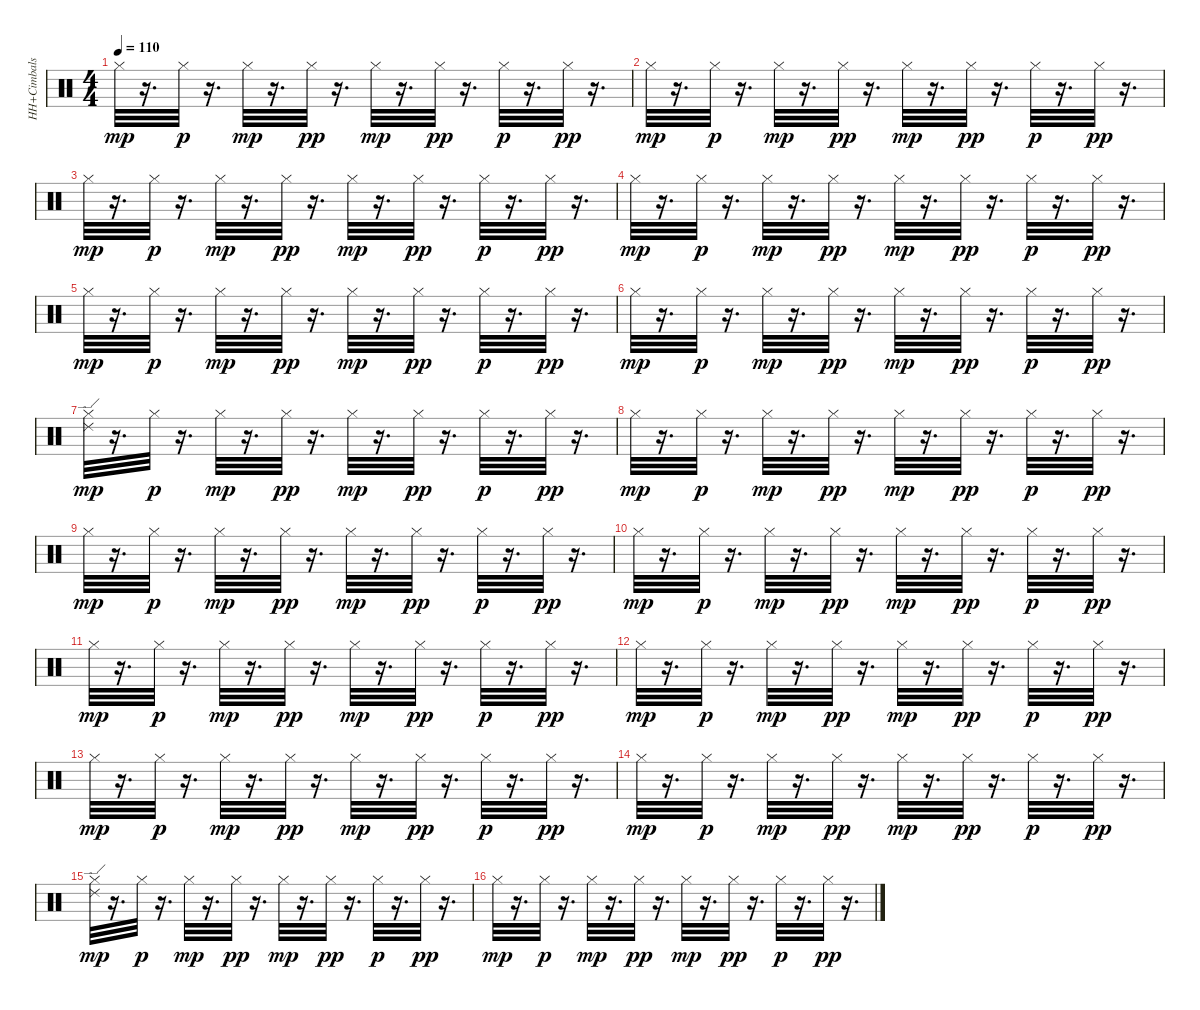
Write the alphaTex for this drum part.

\track ("HH+Cimbals" "HH+Cimbals") {instrument percussion}
\staff {score}
\articulation defaults
\ts (4 4)
\tempo 110
\clef neutral
\ks c "Hi-Hat (closed)".32{dy mp}
r.16{d} "Hi-Hat (closed)".32{dy p} r.16{d} "Hi-Hat (closed)".32{dy mp} r.16{d} "Hi-Hat (closed)".32{dy pp} r.16{d} "Hi-Hat (closed)".32{dy mp} r.16{d} "Hi-Hat (closed)".32{dy pp} r.16{d} "Hi-Hat (closed)".32{dy p} r.16{d} "Hi-Hat (closed)".32{dy pp} r.16{d} |
"Hi-Hat (closed)".32{dy mp} r.16{d} "Hi-Hat (closed)".32{dy p} r.16{d} "Hi-Hat (closed)".32{dy mp} r.16{d} "Hi-Hat (closed)".32{dy pp} r.16{d} "Hi-Hat (closed)".32{dy mp} r.16{d} "Hi-Hat (closed)".32{dy pp} r.16{d} "Hi-Hat (closed)".32{dy p} r.16{d} "Hi-Hat (closed)".32{dy pp} r.16{d} |
"Hi-Hat (closed)".32{dy mp} r.16{d} "Hi-Hat (closed)".32{dy p} r.16{d} "Hi-Hat (closed)".32{dy mp} r.16{d} "Hi-Hat (closed)".32{dy pp} r.16{d} "Hi-Hat (closed)".32{dy mp} r.16{d} "Hi-Hat (closed)".32{dy pp} r.16{d} "Hi-Hat (closed)".32{dy p} r.16{d} "Hi-Hat (closed)".32{dy pp} r.16{d} |
"Hi-Hat (closed)".32{dy mp} r.16{d} "Hi-Hat (closed)".32{dy p} r.16{d} "Hi-Hat (closed)".32{dy mp} r.16{d} "Hi-Hat (closed)".32{dy pp} r.16{d} "Hi-Hat (closed)".32{dy mp} r.16{d} "Hi-Hat (closed)".32{dy pp} r.16{d} "Hi-Hat (closed)".32{dy p} r.16{d} "Hi-Hat (closed)".32{dy pp} r.16{d} |
"Hi-Hat (closed)".32{dy mp} r.16{d} "Hi-Hat (closed)".32{dy p} r.16{d} "Hi-Hat (closed)".32{dy mp} r.16{d} "Hi-Hat (closed)".32{dy pp} r.16{d} "Hi-Hat (closed)".32{dy mp} r.16{d} "Hi-Hat (closed)".32{dy pp} r.16{d} "Hi-Hat (closed)".32{dy p} r.16{d} "Hi-Hat (closed)".32{dy pp} r.16{d} |
"Hi-Hat (closed)".32{dy mp} r.16{d} "Hi-Hat (closed)".32{dy p} r.16{d} "Hi-Hat (closed)".32{dy mp} r.16{d} "Hi-Hat (closed)".32{dy pp} r.16{d} "Hi-Hat (closed)".32{dy mp} r.16{d} "Hi-Hat (closed)".32{dy pp} r.16{d} "Hi-Hat (closed)".32{dy p} r.16{d} "Hi-Hat (closed)".32{dy pp} r.16{d} |
("Hi-Hat (closed)" "Ride (edge) 2").32{dy mp} r.16{d} "Hi-Hat (closed)".32{dy p} r.16{d} "Hi-Hat (closed)".32{dy mp} r.16{d} "Hi-Hat (closed)".32{dy pp} r.16{d} "Hi-Hat (closed)".32{dy mp} r.16{d} "Hi-Hat (closed)".32{dy pp} r.16{d} "Hi-Hat (closed)".32{dy p} r.16{d} "Hi-Hat (closed)".32{dy pp} r.16{d} |
"Hi-Hat (closed)".32{dy mp} r.16{d} "Hi-Hat (closed)".32{dy p} r.16{d} "Hi-Hat (closed)".32{dy mp} r.16{d} "Hi-Hat (closed)".32{dy pp} r.16{d} "Hi-Hat (closed)".32{dy mp} r.16{d} "Hi-Hat (closed)".32{dy pp} r.16{d} "Hi-Hat (closed)".32{dy p} r.16{d} "Hi-Hat (closed)".32{dy pp} r.16{d} |
"Hi-Hat (closed)".32{dy mp} r.16{d} "Hi-Hat (closed)".32{dy p} r.16{d} "Hi-Hat (closed)".32{dy mp} r.16{d} "Hi-Hat (closed)".32{dy pp} r.16{d} "Hi-Hat (closed)".32{dy mp} r.16{d} "Hi-Hat (closed)".32{dy pp} r.16{d} "Hi-Hat (closed)".32{dy p} r.16{d} "Hi-Hat (closed)".32{dy pp} r.16{d} |
"Hi-Hat (closed)".32{dy mp} r.16{d} "Hi-Hat (closed)".32{dy p} r.16{d} "Hi-Hat (closed)".32{dy mp} r.16{d} "Hi-Hat (closed)".32{dy pp} r.16{d} "Hi-Hat (closed)".32{dy mp} r.16{d} "Hi-Hat (closed)".32{dy pp} r.16{d} "Hi-Hat (closed)".32{dy p} r.16{d} "Hi-Hat (closed)".32{dy pp} r.16{d} |
"Hi-Hat (closed)".32{dy mp} r.16{d} "Hi-Hat (closed)".32{dy p} r.16{d} "Hi-Hat (closed)".32{dy mp} r.16{d} "Hi-Hat (closed)".32{dy pp} r.16{d} "Hi-Hat (closed)".32{dy mp} r.16{d} "Hi-Hat (closed)".32{dy pp} r.16{d} "Hi-Hat (closed)".32{dy p} r.16{d} "Hi-Hat (closed)".32{dy pp} r.16{d} |
"Hi-Hat (closed)".32{dy mp} r.16{d} "Hi-Hat (closed)".32{dy p} r.16{d} "Hi-Hat (closed)".32{dy mp} r.16{d} "Hi-Hat (closed)".32{dy pp} r.16{d} "Hi-Hat (closed)".32{dy mp} r.16{d} "Hi-Hat (closed)".32{dy pp} r.16{d} "Hi-Hat (closed)".32{dy p} r.16{d} "Hi-Hat (closed)".32{dy pp} r.16{d} |
"Hi-Hat (closed)".32{dy mp} r.16{d} "Hi-Hat (closed)".32{dy p} r.16{d} "Hi-Hat (closed)".32{dy mp} r.16{d} "Hi-Hat (closed)".32{dy pp} r.16{d} "Hi-Hat (closed)".32{dy mp} r.16{d} "Hi-Hat (closed)".32{dy pp} r.16{d} "Hi-Hat (closed)".32{dy p} r.16{d} "Hi-Hat (closed)".32{dy pp} r.16{d} |
"Hi-Hat (closed)".32{dy mp} r.16{d} "Hi-Hat (closed)".32{dy p} r.16{d} "Hi-Hat (closed)".32{dy mp} r.16{d} "Hi-Hat (closed)".32{dy pp} r.16{d} "Hi-Hat (closed)".32{dy mp} r.16{d} "Hi-Hat (closed)".32{dy pp} r.16{d} "Hi-Hat (closed)".32{dy p} r.16{d} "Hi-Hat (closed)".32{dy pp} r.16{d} |
("Ride (edge) 2" "Hi-Hat (closed)").32{dy mp} r.16{d} "Hi-Hat (closed)".32{dy p} r.16{d} "Hi-Hat (closed)".32{dy mp} r.16{d} "Hi-Hat (closed)".32{dy pp} r.16{d} "Hi-Hat (closed)".32{dy mp} r.16{d} "Hi-Hat (closed)".32{dy pp} r.16{d} "Hi-Hat (closed)".32{dy p} r.16{d} "Hi-Hat (closed)".32{dy pp} r.16{d} |
"Hi-Hat (closed)".32{dy mp} r.16{d} "Hi-Hat (closed)".32{dy p} r.16{d} "Hi-Hat (closed)".32{dy mp} r.16{d} "Hi-Hat (closed)".32{dy pp} r.16{d} "Hi-Hat (closed)".32{dy mp} r.16{d} "Hi-Hat (closed)".32{dy pp} r.16{d} "Hi-Hat (closed)".32{dy p} r.16{d} "Hi-Hat (closed)".32{dy pp} r.16{d}
